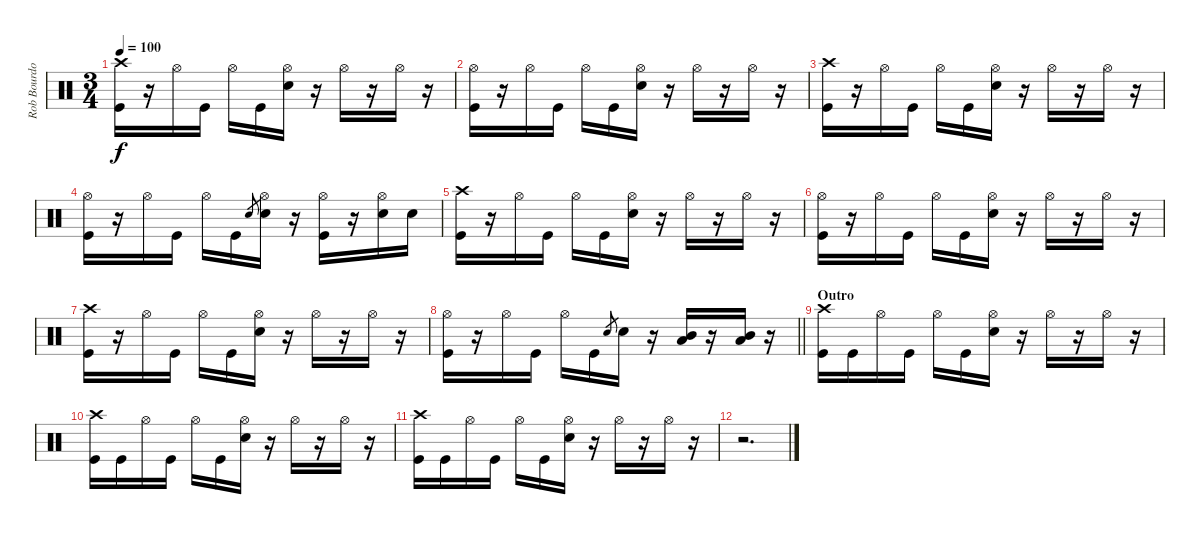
\track ("Rob Bourdon" "Rob Bourdo") {instrument percussion}
\staff {score}
\articulation defaults
\ts (3 4)
\tempo 100
\clef neutral
\ks c
("Crash high (hit)" "Kick (hit)").16{dy f} r.16 "Hi-Hat (open)".16 "Kick (hit)".16 "Hi-Hat (open)".16 "Kick (hit)".16 ("Hi-Hat (open)" "Snare (hit) 2").16 r.16 "Hi-Hat (open)".16 r.16 "Hi-Hat (open)".16 r.16 |
("Hi-Hat (open)" "Kick (hit)").16 r.16 "Hi-Hat (open)".16 "Kick (hit)".16 "Hi-Hat (open)".16 "Kick (hit)".16 ("Hi-Hat (open)" "Snare (hit) 2").16 r.16 "Hi-Hat (open)".16 r.16 "Hi-Hat (open)".16 r.16 |
("Crash high (hit)" "Kick (hit)").16 r.16 "Hi-Hat (open)".16 "Kick (hit)".16 "Hi-Hat (open)".16 "Kick (hit)".16 ("Hi-Hat (open)" "Snare (hit) 2").16 r.16 "Hi-Hat (open)".16 r.16 "Hi-Hat (open)".16 r.16 |
("Hi-Hat (open)" "Kick (hit)").16 r.16 "Hi-Hat (open)".16 "Kick (hit)".16 "Hi-Hat (open)".16 "Kick (hit)".16 "Snare (hit) 2".8{gr} ("Hi-Hat (open)" "Snare (hit) 2").16 r.16 ("Hi-Hat (open)" "Kick (hit)").16 r.16 ("Hi-Hat (open)" "Snare (hit) 2").16 "Snare (hit) 2".16 |
("Crash high (hit)" "Kick (hit)").16 r.16 "Hi-Hat (open)".16 "Kick (hit)".16 "Hi-Hat (open)".16 "Kick (hit)".16 ("Hi-Hat (open)" "Snare (hit) 2").16 r.16 "Hi-Hat (open)".16 r.16 "Hi-Hat (open)".16 r.16 |
("Hi-Hat (open)" "Kick (hit)").16 r.16 "Hi-Hat (open)".16 "Kick (hit)".16 "Hi-Hat (open)".16 "Kick (hit)".16 ("Hi-Hat (open)" "Snare (hit) 2").16 r.16 "Hi-Hat (open)".16 r.16 "Hi-Hat (open)".16 r.16 |
("Crash high (hit)" "Kick (hit)").16 r.16 "Hi-Hat (open)".16 "Kick (hit)".16 "Hi-Hat (open)".16 "Kick (hit)".16 ("Hi-Hat (open)" "Snare (hit) 2").16 r.16 "Hi-Hat (open)".16 r.16 "Hi-Hat (open)".16 r.16 |
\barLineRight lightlight
("Hi-Hat (open)" "Kick (hit)").16 r.16 "Hi-Hat (open)".16 "Kick (hit)".16 "Hi-Hat (open)".16 "Kick (hit)".16 "Snare (hit) 2".8{gr} "Snare (hit) 2".16 r.16 ("Mid Tom (hit)" "Low Tom (hit)").16 r.16 ("Mid Tom (hit)" "Low Tom (hit)").16 r.16 |
\section ("" "Outro")
("Crash high (hit)" "Kick (hit)").16 "Kick (hit)".16 "Hi-Hat (open)".16 "Kick (hit)".16 "Hi-Hat (open)".16 "Kick (hit)".16 ("Hi-Hat (open)" "Snare (hit) 2").16 r.16 "Hi-Hat (open)".16 r.16 "Hi-Hat (open)".16 r.16 |
("Crash high (hit)" "Kick (hit)").16 "Kick (hit)".16 "Hi-Hat (open)".16 "Kick (hit)".16 "Hi-Hat (open)".16 "Kick (hit)".16 ("Hi-Hat (open)" "Snare (hit) 2").16 r.16 "Hi-Hat (open)".16 r.16 "Hi-Hat (open)".16 r.16 |
("Crash high (hit)" "Kick (hit)").16 "Kick (hit)".16 "Hi-Hat (open)".16 "Kick (hit)".16 "Hi-Hat (open)".16 "Kick (hit)".16 ("Hi-Hat (open)" "Snare (hit) 2").16 r.16 "Hi-Hat (open)".16 r.16 "Hi-Hat (open)".16 r.16 |
r.2{d}
